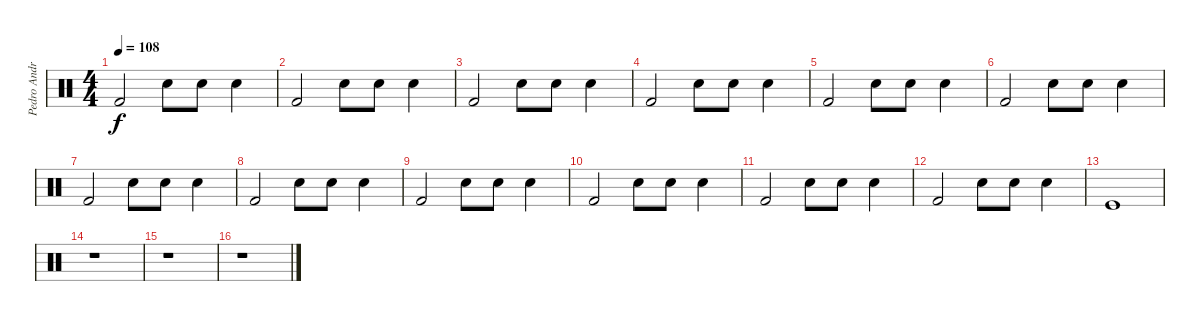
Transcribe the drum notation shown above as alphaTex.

\track ("Pedro Andreu" "Pedro Andr") {instrument percussion}
\staff {score}
\articulation defaults
\ts (4 4)
\tempo 108
\clef neutral
\ks c "Kick (hit) 2".2{dy f} "Snare (hit) 2".8 "Snare (hit) 2".8 "Snare (hit) 2".4
|
"Kick (hit) 2".2 "Snare (hit) 2".8 "Snare (hit) 2".8 "Snare (hit) 2".4 |
"Kick (hit) 2".2 "Snare (hit) 2".8 "Snare (hit) 2".8 "Snare (hit) 2".4 |
"Kick (hit) 2".2 "Snare (hit) 2".8 "Snare (hit) 2".8 "Snare (hit) 2".4 |
"Kick (hit) 2".2 "Snare (hit) 2".8 "Snare (hit) 2".8 "Snare (hit) 2".4 |
"Kick (hit) 2".2 "Snare (hit) 2".8 "Snare (hit) 2".8 "Snare (hit) 2".4 |
"Kick (hit) 2".2 "Snare (hit) 2".8 "Snare (hit) 2".8 "Snare (hit) 2".4 |
"Kick (hit) 2".2 "Snare (hit) 2".8 "Snare (hit) 2".8 "Snare (hit) 2".4 |
"Kick (hit) 2".2 "Snare (hit) 2".8 "Snare (hit) 2".8 "Snare (hit) 2".4 |
"Kick (hit) 2".2 "Snare (hit) 2".8 "Snare (hit) 2".8 "Snare (hit) 2".4 |
"Kick (hit) 2".2 "Snare (hit) 2".8 "Snare (hit) 2".8 "Snare (hit) 2".4 |
"Kick (hit) 2".2 "Snare (hit) 2".8 "Snare (hit) 2".8 "Snare (hit) 2".4 |
"Kick (hit)".1 |
r.1 |
r.1 |
r.1
